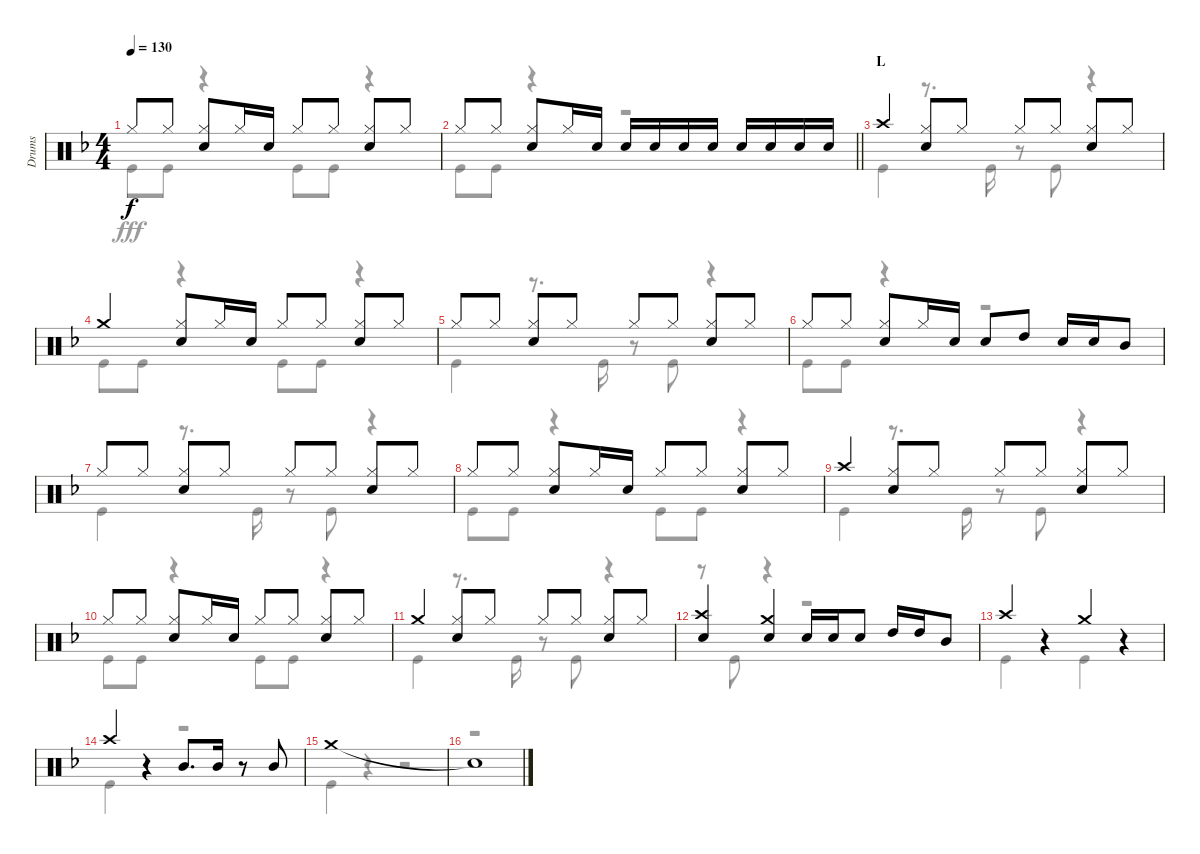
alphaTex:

\track ("Drums" "Drums") {instrument percussion}
\staff {score}
\articulation defaults
\voice
\ts (4 4)
\tempo 130
\clef neutral
\ks f "Hi-Hat (closed)".8{dy f} "Hi-Hat (closed)".8
("Hi-Hat (closed)" "Snare (hit) 2").8 "Hi-Hat (closed)".16 "Snare (hit) 2".16 "Hi-Hat (closed)".8 "Hi-Hat (closed)".8 ("Hi-Hat (closed)" "Snare (hit) 2").8 "Hi-Hat (closed)".8 |
\barLineRight lightlight "Hi-Hat (closed)".8 "Hi-Hat (closed)".8
("Hi-Hat (closed)" "Snare (hit) 2").8 "Hi-Hat (closed)".16 "Snare (hit) 2".16 "Snare (hit) 2".16 "Snare (hit) 2".16 "Snare (hit) 2".16 "Snare (hit) 2".16 "Snare (hit) 2".16 "Snare (hit) 2".16 "Snare (hit) 2".16 "Snare (hit) 2".16 |
\section ("" "L")
"Crash high (hit)".4 ("Hi-Hat (closed)" "Snare (hit) 2").8 "Hi-Hat (closed)".8 "Hi-Hat (closed)".8 "Hi-Hat (closed)".8 ("Hi-Hat (closed)" "Snare (hit) 2").8 "Hi-Hat (closed)".8 |
"Crash medium (hit)".4 ("Hi-Hat (closed)" "Snare (hit) 2").8 "Hi-Hat (closed)".16 "Snare (hit) 2".16 "Hi-Hat (closed)".8 "Hi-Hat (closed)".8 ("Hi-Hat (closed)" "Snare (hit) 2").8 "Hi-Hat (closed)".8 |
"Hi-Hat (closed)".8 "Hi-Hat (closed)".8 ("Hi-Hat (closed)" "Snare (hit) 2").8 "Hi-Hat (closed)".8 "Hi-Hat (closed)".8 "Hi-Hat (closed)".8 ("Hi-Hat (closed)" "Snare (hit) 2").8 "Hi-Hat (closed)".8 |
"Hi-Hat (closed)".8 "Hi-Hat (closed)".8 ("Hi-Hat (closed)" "Snare (hit) 2").8 "Hi-Hat (closed)".16 "Snare (hit) 2".16 "Snare (hit) 2".8 "High Tom (hit)".8 "Snare (hit) 2".16 "Snare (hit) 2".16 "Mid Tom (hit)".8 |
"Hi-Hat (closed)".8 "Hi-Hat (closed)".8 ("Hi-Hat (closed)" "Snare (hit) 2").8 "Hi-Hat (closed)".8 "Hi-Hat (closed)".8 "Hi-Hat (closed)".8 ("Hi-Hat (closed)" "Snare (hit) 2").8 "Hi-Hat (closed)".8 |
"Hi-Hat (closed)".8 "Hi-Hat (closed)".8 ("Hi-Hat (closed)" "Snare (hit) 2").8 "Hi-Hat (closed)".16 "Snare (hit) 2".16 "Hi-Hat (closed)".8 "Hi-Hat (closed)".8 ("Hi-Hat (closed)" "Snare (hit) 2").8 "Hi-Hat (closed)".8 |
"Crash high (hit)".4 ("Hi-Hat (closed)" "Snare (hit) 2").8 "Hi-Hat (closed)".8 "Hi-Hat (closed)".8 "Hi-Hat (closed)".8 ("Hi-Hat (closed)" "Snare (hit) 2").8 "Hi-Hat (closed)".8 |
"Hi-Hat (closed)".8 "Hi-Hat (closed)".8 ("Hi-Hat (closed)" "Snare (hit) 2").8 "Hi-Hat (closed)".16 "Snare (hit) 2".16 "Hi-Hat (closed)".8 "Hi-Hat (closed)".8 ("Hi-Hat (closed)" "Snare (hit) 2").8 "Hi-Hat (closed)".8 |
"Crash medium (hit)".4 ("Hi-Hat (closed)" "Snare (hit) 2").8 "Hi-Hat (closed)".8 "Hi-Hat (closed)".8 "Hi-Hat (closed)".8 ("Hi-Hat (closed)" "Snare (hit) 2").8 "Hi-Hat (closed)".8 |
("Crash high (hit)" "Snare (hit) 2").4 ("Crash medium (hit)" "Snare (hit) 2").4 "Snare (hit) 2".16 "Snare (hit) 2".16 "Snare (hit) 2".8 "High Tom (hit)".16 "High Tom (hit)".16 "Mid Tom (hit)".8 |
"Crash high (hit)".4 r.4 "Crash medium (hit)".4 r.4 |
"Crash high (hit)".4 r.4 "Mid Tom (hit)".8{d} "Mid Tom (hit)".16 r.8 "Mid Tom (hit)".8 |
"Crash medium (hit)".1 |
"Snare (hit)"{t}.1
\voice
\clef neutral
\ottava regular
\simile none
\ks f "Kick (hit)".8{dy fff} "Kick (hit)".8
r.4 "Kick (hit)".8 "Kick (hit)".8 r.4 |
\barLineRight lightlight "Kick (hit)".8 "Kick (hit)".8
r.4 r.2 |
"Kick (hit)".4 r.8{d} "Kick (hit)".16 r.8 "Kick (hit)".8 r.4 |
"Kick (hit)".8 "Kick (hit)".8 r.4 "Kick (hit)".8 "Kick (hit)".8 r.4 |
"Kick (hit)".4 r.8{d} "Kick (hit)".16 r.8 "Kick (hit)".8 r.4 |
"Kick (hit)".8 "Kick (hit)".8 r.4 r.2 |
"Kick (hit)".4 r.8{d} "Kick (hit)".16 r.8 "Kick (hit)".8 r.4 |
"Kick (hit)".8 "Kick (hit)".8 r.4 "Kick (hit)".8 "Kick (hit)".8 r.4 |
"Kick (hit)".4 r.8{d} "Kick (hit)".16 r.8 "Kick (hit)".8 r.4 |
"Kick (hit)".8 "Kick (hit)".8 r.4 "Kick (hit)".8 "Kick (hit)".8 r.4 |
"Kick (hit)".4 r.8{d} "Kick (hit)".16 r.8 "Kick (hit)".8 r.4 |
r.8 "Kick (hit)".8 r.4 r.2 |
"Kick (hit)".4 r.4 "Kick (hit)".4 r.4 |
"Kick (hit)".4 r.4 r.2 |
"Kick (hit)".4 r.4 r.2 |
r.1
